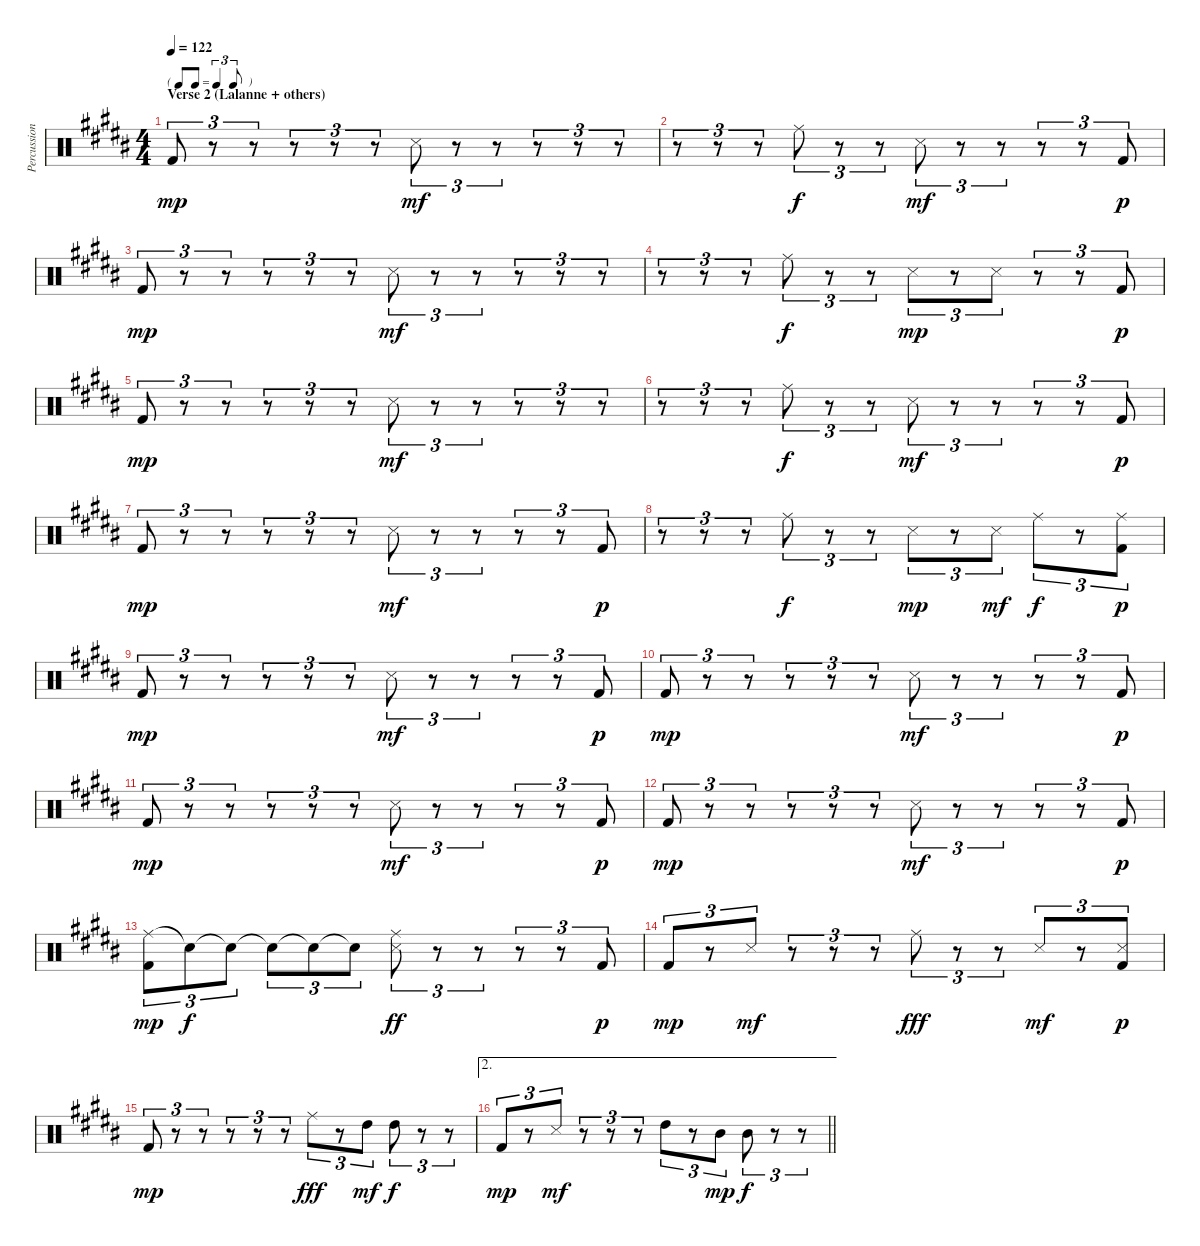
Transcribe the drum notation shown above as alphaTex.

\track ("Percussion" "Percussion") {instrument percussion}
\staff {score}
\articulation defaults
\ts (4 4)
\tf triplet8th
\section ("" "Verse 2 (Lalanne + others)")
\tempo 122
\clef neutral
\ks g#minor "Kick (hit) 2".8{tu (3 2) dy mp}
r.8{tu (3 2)} r.8{tu (3 2)} r.8{tu (3 2)} r.8{tu (3 2)} r.8{tu (3 2)} "Snare (side stick) 3".8{tu (3 2) dy mf} r.8{tu (3 2)} r.8{tu (3 2)} r.8{tu (3 2)} r.8{tu (3 2)} r.8{tu (3 2)} |
r.8{tu (3 2)} r.8{tu (3 2)} r.8{tu (3 2)} "Ride (middle)".8{tu (3 2) dy f} r.8{tu (3 2)} r.8{tu (3 2)} "Snare (side stick) 3".8{tu (3 2) dy mf} r.8{tu (3 2)} r.8{tu (3 2)} r.8{tu (3 2)} r.8{tu (3 2)} "Kick (hit) 2".8{tu (3 2) dy p} |
"Kick (hit) 2".8{tu (3 2) dy mp} r.8{tu (3 2)} r.8{tu (3 2)} r.8{tu (3 2)} r.8{tu (3 2)} r.8{tu (3 2)} "Snare (side stick) 3".8{tu (3 2) dy mf} r.8{tu (3 2)} r.8{tu (3 2)} r.8{tu (3 2)} r.8{tu (3 2)} r.8{tu (3 2)} |
r.8{tu (3 2)} r.8{tu (3 2)} r.8{tu (3 2)} "Ride (middle)".8{tu (3 2) dy f} r.8{tu (3 2)} r.8{tu (3 2)} "Snare (side stick) 3".8{tu (3 2) dy mp} r.8{tu (3 2)} "Snare (side stick) 3".8{tu (3 2)} r.8{tu (3 2)} r.8{tu (3 2)} "Kick (hit) 2".8{tu (3 2) dy p} |
"Kick (hit) 2".8{tu (3 2) dy mp} r.8{tu (3 2)} r.8{tu (3 2)} r.8{tu (3 2)} r.8{tu (3 2)} r.8{tu (3 2)} "Snare (side stick) 3".8{tu (3 2) dy mf} r.8{tu (3 2)} r.8{tu (3 2)} r.8{tu (3 2)} r.8{tu (3 2)} r.8{tu (3 2)} |
r.8{tu (3 2)} r.8{tu (3 2)} r.8{tu (3 2)} "Ride (middle)".8{tu (3 2) dy f} r.8{tu (3 2)} r.8{tu (3 2)} "Snare (side stick) 3".8{tu (3 2) dy mf} r.8{tu (3 2)} r.8{tu (3 2)} r.8{tu (3 2)} r.8{tu (3 2)} "Kick (hit) 2".8{tu (3 2) dy p} |
"Kick (hit) 2".8{tu (3 2) dy mp} r.8{tu (3 2)} r.8{tu (3 2)} r.8{tu (3 2)} r.8{tu (3 2)} r.8{tu (3 2)} "Snare (side stick) 3".8{tu (3 2) dy mf} r.8{tu (3 2)} r.8{tu (3 2)} r.8{tu (3 2)} r.8{tu (3 2)} "Kick (hit) 2".8{tu (3 2) dy p} |
r.8{tu (3 2)} r.8{tu (3 2)} r.8{tu (3 2)} "Ride (middle)".8{tu (3 2) dy f} r.8{tu (3 2)} r.8{tu (3 2)} "Snare (side stick) 3".8{tu (3 2) dy mp} r.8{tu (3 2)} "Snare (side stick) 3".8{tu (3 2) dy mf} "Ride (middle)".8{tu (3 2) dy f} r.8{tu (3 2)} ("Ride (middle)" "Kick (hit) 2").8{tu (3 2) dy p} |
"Kick (hit) 2".8{tu (3 2) dy mp} r.8{tu (3 2)} r.8{tu (3 2)} r.8{tu (3 2)} r.8{tu (3 2)} r.8{tu (3 2)} "Snare (side stick) 3".8{tu (3 2) dy mf} r.8{tu (3 2)} r.8{tu (3 2)} r.8{tu (3 2)} r.8{tu (3 2)} "Kick (hit) 2".8{tu (3 2) dy p} |
"Kick (hit) 2".8{tu (3 2) dy mp} r.8{tu (3 2)} r.8{tu (3 2)} r.8{tu (3 2)} r.8{tu (3 2)} r.8{tu (3 2)} "Snare (side stick) 3".8{tu (3 2) dy mf} r.8{tu (3 2)} r.8{tu (3 2)} r.8{tu (3 2)} r.8{tu (3 2)} "Kick (hit) 2".8{tu (3 2) dy p} |
"Kick (hit) 2".8{tu (3 2) dy mp} r.8{tu (3 2)} r.8{tu (3 2)} r.8{tu (3 2)} r.8{tu (3 2)} r.8{tu (3 2)} "Snare (side stick) 3".8{tu (3 2) dy mf} r.8{tu (3 2)} r.8{tu (3 2)} r.8{tu (3 2)} r.8{tu (3 2)} "Kick (hit) 2".8{tu (3 2) dy p} |
"Kick (hit) 2".8{tu (3 2) dy mp} r.8{tu (3 2)} r.8{tu (3 2)} r.8{tu (3 2)} r.8{tu (3 2)} r.8{tu (3 2)} "Snare (side stick) 3".8{tu (3 2) dy mf} r.8{tu (3 2)} r.8{tu (3 2)} r.8{tu (3 2)} r.8{tu (3 2)} "Kick (hit) 2".8{tu (3 2) dy p} |
("Ride (middle)" "Kick (hit) 2").8{tu (3 2) dy mp} "Snare (hit)"{t}.8{tu (3 2) dy f} "Snare (hit)"{t}.8{tu (3 2)} "Snare (hit)"{t}.8{tu (3 2)} "Snare (hit)"{t}.8{tu (3 2)} "Snare (hit)"{t}.8{tu (3 2)} ("Snare (side stick) 3" "Ride (middle)").8{tu (3 2) dy ff} r.8{tu (3 2)} r.8{tu (3 2)} r.8{tu (3 2)} r.8{tu (3 2)} "Kick (hit) 2".8{tu (3 2) dy p} |
"Kick (hit) 2".8{tu (3 2) dy mp} r.8{tu (3 2)} "Snare (side stick) 3".8{tu (3 2) dy mf} r.8{tu (3 2)} r.8{tu (3 2)} r.8{tu (3 2)} "Ride (middle)".8{tu (3 2) dy fff} r.8{tu (3 2)} r.8{tu (3 2)} "Snare (side stick) 3".8{tu (3 2) dy mf} r.8{tu (3 2)} ("Snare (side stick) 3" "Kick (hit) 2").8{tu (3 2) dy p} |
"Kick (hit) 2".8{tu (3 2) dy mp} r.8{tu (3 2)} r.8{tu (3 2)} r.8{tu (3 2)} r.8{tu (3 2)} r.8{tu (3 2)} "Ride (middle)".8{tu (3 2) dy fff} r.8{tu (3 2)} "High Tom (hit)".8{tu (3 2) dy mf} "High Tom (hit)".8{tu (3 2) dy f} r.8{tu (3 2)} r.8{tu (3 2)} |
\ae 2
\barLineRight lightlight "Kick (hit) 2".8{tu (3 2) dy mp}
r.8{tu (3 2)} "Snare (side stick) 3".8{tu (3 2) dy mf} r.8{tu (3 2)} r.8{tu (3 2)} r.8{tu (3 2)} "High Tom (hit)".8{tu (3 2)} r.8{tu (3 2)} "Mid Tom (hit)".8{tu (3 2) dy mp} "Mid Tom (hit)".8{tu (3 2) dy f} r.8{tu (3 2)} r.8{tu (3 2)}
